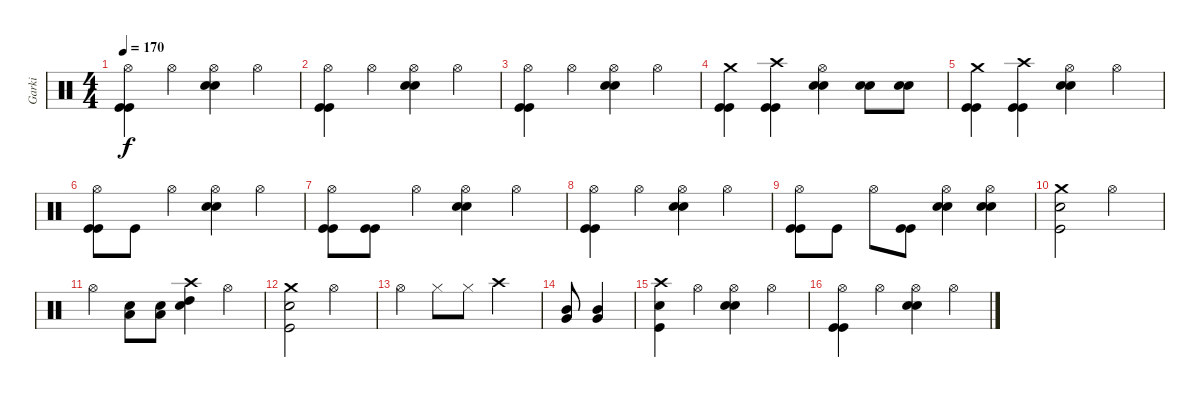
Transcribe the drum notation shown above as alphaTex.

\track ("Garki" "Garki") {instrument percussion}
\staff {score}
\articulation defaults
\ts (4 4)
\tempo 170
\clef neutral
\ks c
("Kick (hit)" "Kick (hit)" "Hi-Hat (open)").4{dy f} "Hi-Hat (open)".4 ("Electric Snare (hit)" "Electric Snare (hit)" "Hi-Hat (open)").4 "Hi-Hat (open)".4 |
("Kick (hit)" "Kick (hit)" "Hi-Hat (open)").4 "Hi-Hat (open)".4 ("Electric Snare (hit)" "Electric Snare (hit)" "Hi-Hat (open)").4 "Hi-Hat (open)".4 |
("Kick (hit)" "Kick (hit)" "Hi-Hat (open)").4 "Hi-Hat (open)".4 ("Electric Snare (hit)" "Electric Snare (hit)" "Hi-Hat (open)").4 "Hi-Hat (open)".4 |
("Kick (hit)" "Kick (hit)" "Crash medium (hit)").4 ("Kick (hit)" "Kick (hit)" "Crash high (hit)").4 ("Electric Snare (hit)" "Electric Snare (hit)" "Hi-Hat (open)").4 ("Electric Snare (hit)" "Electric Snare (hit)").8 ("Electric Snare (hit)" "Electric Snare (hit)").8 |
("Kick (hit)" "Kick (hit)" "Crash medium (hit)").4 ("Kick (hit)" "Kick (hit)" "Crash high (hit)").4 ("Electric Snare (hit)" "Electric Snare (hit)" "Hi-Hat (open)").4 "Hi-Hat (open)".4 |
("Kick (hit)" "Kick (hit)" "Hi-Hat (open)").8 "Kick (hit)".8 "Hi-Hat (open)".4 ("Electric Snare (hit)" "Electric Snare (hit)" "Hi-Hat (open)").4 "Hi-Hat (open)".4 |
("Kick (hit)" "Kick (hit)" "Hi-Hat (open)").8 ("Kick (hit)" "Kick (hit)").8 "Hi-Hat (open)".4 ("Electric Snare (hit)" "Electric Snare (hit)" "Hi-Hat (open)").4 "Hi-Hat (open)".4 |
("Kick (hit)" "Kick (hit)" "Hi-Hat (open)").4 "Hi-Hat (open)".4 ("Electric Snare (hit)" "Electric Snare (hit)" "Hi-Hat (open)").4 "Hi-Hat (open)".4 |
("Kick (hit)" "Kick (hit)" "Hi-Hat (open)").8 "Kick (hit)".8 "Hi-Hat (open)".8 ("Kick (hit)" "Kick (hit)").8 ("Electric Snare (hit)" "Electric Snare (hit)" "Hi-Hat (open)").4 ("Electric Snare (hit)" "Electric Snare (hit)" "Hi-Hat (open)").4 |
("Kick (hit)" "Electric Snare (hit)" "Crash medium (hit)").2 "Hi-Hat (open)".2 |
"Hi-Hat (open)".4 ("Electric Snare (hit)" "Low Tom (hit)").8 ("Electric Snare (hit)" "Low Tom (hit)").8 ("Electric Snare (hit)" "High Tom (hit)" "Crash high (hit)").4 "Hi-Hat (open)".4 |
("Kick (hit)" "Electric Snare (hit)" "Crash medium (hit)").2 "Hi-Hat (open)".2 |
"Hi-Hat (open)".4 "Hi-Hat (closed)".8 "Hi-Hat (closed)".8 "Crash high (hit)".2 |
("Very Low Tom (hit)" "Mid Tom (hit)").8 ("Very Low Tom (hit)" "Mid Tom (hit)").4 |
("Kick (hit)" "Electric Snare (hit)" "Crash high (hit)").4 "Hi-Hat (open)".4 ("Electric Snare (hit)" "Electric Snare (hit)" "Hi-Hat (open)").4 "Hi-Hat (open)".4 |
("Kick (hit)" "Kick (hit)" "Hi-Hat (open)").4 "Hi-Hat (open)".4 ("Electric Snare (hit)" "Electric Snare (hit)" "Hi-Hat (open)").4 "Hi-Hat (open)".4
